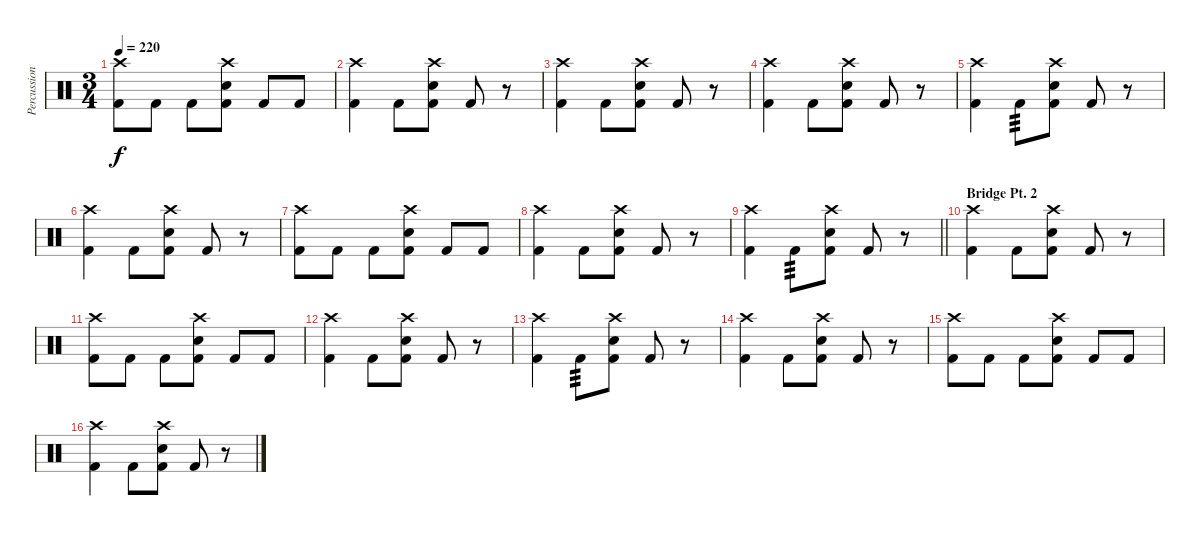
\track ("Percussion" "Percussion") {instrument percussion}
\staff {score}
\articulation defaults
\ts (3 4)
\tempo 220
\clef neutral
\ks c
("Crash high (hit)" "Kick (hit) 2").8{dy f} "Kick (hit) 2".8 "Kick (hit) 2".8 ("Crash high (hit)" "Electric Snare (hit)" "Kick (hit) 2").8 "Kick (hit) 2".8 "Kick (hit) 2".8 |
("Crash high (hit)" "Kick (hit) 2").4 "Kick (hit) 2".8 ("Crash high (hit)" "Electric Snare (hit)" "Kick (hit) 2").8 "Kick (hit) 2".8 r.8 |
("Crash high (hit)" "Kick (hit) 2").4 "Kick (hit) 2".8 ("Crash high (hit)" "Electric Snare (hit)" "Kick (hit) 2").8 "Kick (hit) 2".8 r.8 |
("Crash high (hit)" "Kick (hit) 2").4 "Kick (hit) 2".8 ("Crash high (hit)" "Electric Snare (hit)" "Kick (hit) 2").8 "Kick (hit) 2".8 r.8 |
("Crash high (hit)" "Kick (hit) 2").4 "Kick (hit) 2".8{tp 3} ("Crash high (hit)" "Electric Snare (hit)" "Kick (hit) 2").8 "Kick (hit) 2".8 r.8 |
("Crash high (hit)" "Kick (hit) 2").4 "Kick (hit) 2".8 ("Crash high (hit)" "Electric Snare (hit)" "Kick (hit) 2").8 "Kick (hit) 2".8 r.8 |
("Crash high (hit)" "Kick (hit) 2").8 "Kick (hit) 2".8 "Kick (hit) 2".8 ("Crash high (hit)" "Electric Snare (hit)" "Kick (hit) 2").8 "Kick (hit) 2".8 "Kick (hit) 2".8 |
("Crash high (hit)" "Kick (hit) 2").4 "Kick (hit) 2".8 ("Crash high (hit)" "Electric Snare (hit)" "Kick (hit) 2").8 "Kick (hit) 2".8 r.8 |
\barLineRight lightlight
("Crash high (hit)" "Kick (hit) 2").4 "Kick (hit) 2".8{tp 3} ("Crash high (hit)" "Electric Snare (hit)" "Kick (hit) 2").8 "Kick (hit) 2".8 r.8 |
\section ("" "Bridge Pt. 2")
("Crash high (hit)" "Kick (hit) 2").4 "Kick (hit) 2".8 ("Crash high (hit)" "Electric Snare (hit)" "Kick (hit) 2").8 "Kick (hit) 2".8 r.8 |
("Crash high (hit)" "Kick (hit) 2").8 "Kick (hit) 2".8 "Kick (hit) 2".8 ("Crash high (hit)" "Electric Snare (hit)" "Kick (hit) 2").8 "Kick (hit) 2".8 "Kick (hit) 2".8 |
("Crash high (hit)" "Kick (hit) 2").4 "Kick (hit) 2".8 ("Crash high (hit)" "Electric Snare (hit)" "Kick (hit) 2").8 "Kick (hit) 2".8 r.8 |
("Crash high (hit)" "Kick (hit) 2").4 "Kick (hit) 2".8{tp 3} ("Crash high (hit)" "Electric Snare (hit)" "Kick (hit) 2").8 "Kick (hit) 2".8 r.8 |
("Crash high (hit)" "Kick (hit) 2").4 "Kick (hit) 2".8 ("Crash high (hit)" "Electric Snare (hit)" "Kick (hit) 2").8 "Kick (hit) 2".8 r.8 |
("Crash high (hit)" "Kick (hit) 2").8 "Kick (hit) 2".8 "Kick (hit) 2".8 ("Crash high (hit)" "Electric Snare (hit)" "Kick (hit) 2").8 "Kick (hit) 2".8 "Kick (hit) 2".8 |
("Crash high (hit)" "Kick (hit) 2").4 "Kick (hit) 2".8 ("Crash high (hit)" "Electric Snare (hit)" "Kick (hit) 2").8 "Kick (hit) 2".8 r.8
